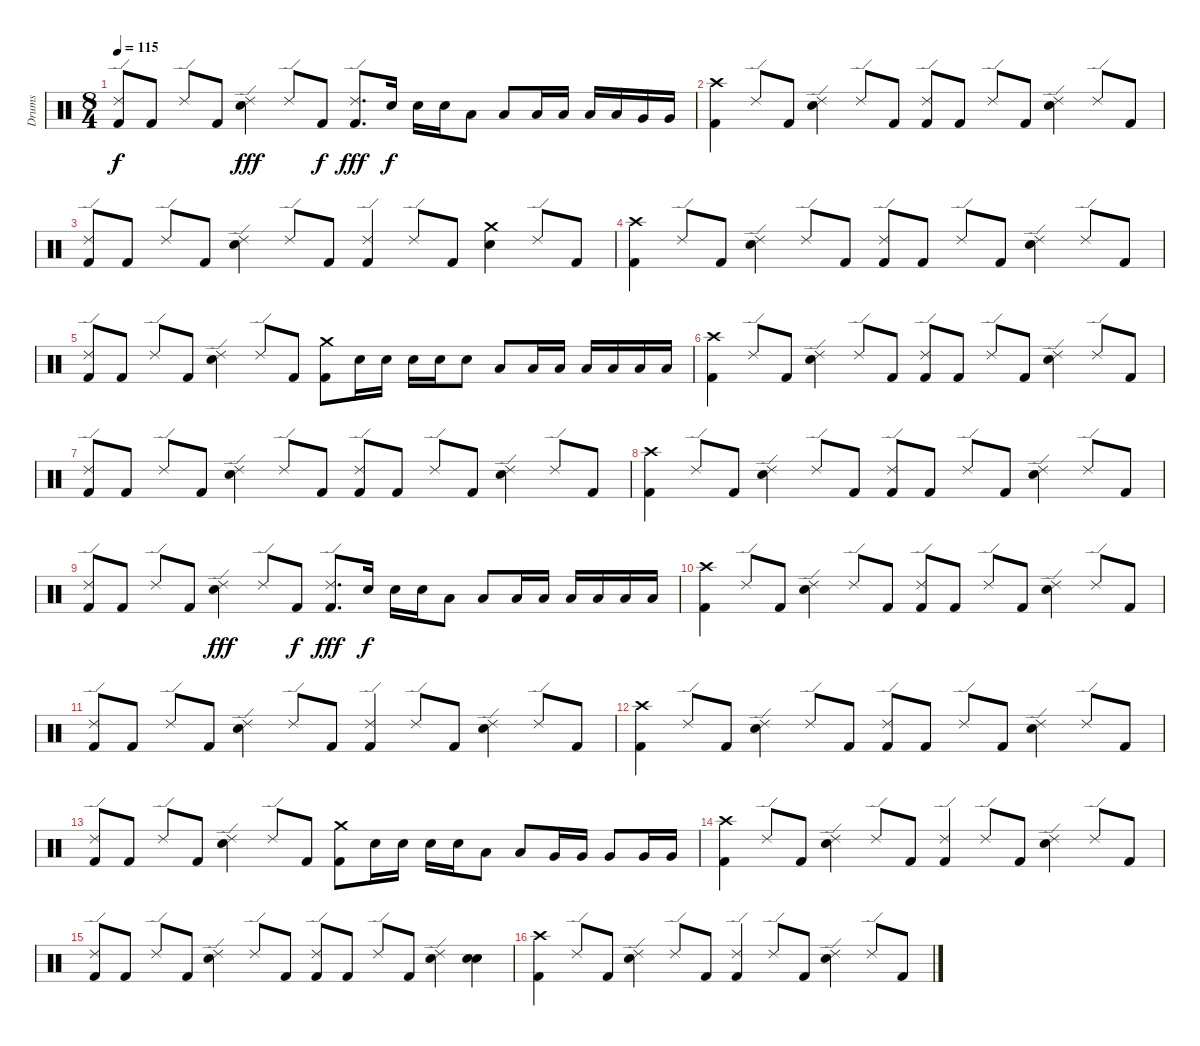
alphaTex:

\track ("Drums" "Drums") {instrument percussion}
\staff {score}
\articulation defaults
\ts (8 4)
\tempo 115
\clef neutral
\ks c
("Ride (edge) 2" "Kick (hit) 2").8{dy f} "Kick (hit) 2".8 "Ride (edge) 2".8 "Kick (hit) 2".8 ("Ride (edge) 2" "Electric Snare (hit)").4{dy fff} "Ride (edge) 2".8 "Kick (hit) 2".8{dy f} ("Ride (edge) 2" "Kick (hit) 2").8{d dy fff} "Electric Snare (hit)".16{dy f} "Electric Snare (hit)".16 "Electric Snare (hit)".16 "Low Tom (hit)".8 "Low Tom (hit)".8 "Low Tom (hit)".16 "Low Tom (hit)".16 "Low Tom (hit)".16 "Low Tom (hit)".16 "Very Low Tom (hit)".16 "Very Low Tom (hit)".16 |
("Crash high (hit)" "Kick (hit) 2").4 "Ride (edge) 2".8 "Kick (hit) 2".8 ("Ride (edge) 2" "Electric Snare (hit)").4 "Ride (edge) 2".8 "Kick (hit) 2".8 ("Ride (edge) 2" "Kick (hit) 2").8 "Kick (hit) 2".8 "Ride (edge) 2".8 "Kick (hit) 2".8 ("Ride (edge) 2" "Electric Snare (hit)").4 "Ride (edge) 2".8 "Kick (hit) 2".8 |
("Ride (edge) 2" "Kick (hit) 2").8 "Kick (hit) 2".8 "Ride (edge) 2".8 "Kick (hit) 2".8 ("Ride (edge) 2" "Electric Snare (hit)").4 "Ride (edge) 2".8 "Kick (hit) 2".8 ("Ride (edge) 2" "Kick (hit) 2").4 "Ride (edge) 2".8 "Kick (hit) 2".8 ("Crash medium (hit)" "Electric Snare (hit)").4 "Ride (edge) 2".8 "Kick (hit) 2".8 |
("Crash high (hit)" "Kick (hit) 2").4 "Ride (edge) 2".8 "Kick (hit) 2".8 ("Ride (edge) 2" "Electric Snare (hit)").4 "Ride (edge) 2".8 "Kick (hit) 2".8 ("Ride (edge) 2" "Kick (hit) 2").8 "Kick (hit) 2".8 "Ride (edge) 2".8 "Kick (hit) 2".8 ("Ride (edge) 2" "Electric Snare (hit)").4 "Ride (edge) 2".8 "Kick (hit) 2".8 |
("Ride (edge) 2" "Kick (hit) 2").8 "Kick (hit) 2".8 "Ride (edge) 2".8 "Kick (hit) 2".8 ("Ride (edge) 2" "Electric Snare (hit)").4 "Ride (edge) 2".8 "Kick (hit) 2".8 ("Crash medium (hit)" "Kick (hit) 2").8 "Electric Snare (hit)".16 "Electric Snare (hit)".16 "Electric Snare (hit)".16 "Electric Snare (hit)".16 "Electric Snare (hit)".8 "Low Tom (hit)".8 "Low Tom (hit)".16 "Low Tom (hit)".16 "Low Tom (hit)".16 "Low Tom (hit)".16 "Low Tom (hit)".16 "Low Tom (hit)".16 |
("Crash high (hit)" "Kick (hit) 2").4 "Ride (edge) 2".8 "Kick (hit) 2".8 ("Ride (edge) 2" "Electric Snare (hit)").4 "Ride (edge) 2".8 "Kick (hit) 2".8 ("Ride (edge) 2" "Kick (hit) 2").8 "Kick (hit) 2".8 "Ride (edge) 2".8 "Kick (hit) 2".8 ("Ride (edge) 2" "Electric Snare (hit)").4 "Ride (edge) 2".8 "Kick (hit) 2".8 |
("Ride (edge) 2" "Kick (hit) 2").8 "Kick (hit) 2".8 "Ride (edge) 2".8 "Kick (hit) 2".8 ("Ride (edge) 2" "Electric Snare (hit)").4 "Ride (edge) 2".8 "Kick (hit) 2".8 ("Ride (edge) 2" "Kick (hit) 2").8 "Kick (hit) 2".8 "Ride (edge) 2".8 "Kick (hit) 2".8 ("Ride (edge) 2" "Electric Snare (hit)").4 "Ride (edge) 2".8 "Kick (hit) 2".8 |
("Crash high (hit)" "Kick (hit) 2").4 "Ride (edge) 2".8 "Kick (hit) 2".8 ("Ride (edge) 2" "Electric Snare (hit)").4 "Ride (edge) 2".8 "Kick (hit) 2".8 ("Ride (edge) 2" "Kick (hit) 2").8 "Kick (hit) 2".8 "Ride (edge) 2".8 "Kick (hit) 2".8 ("Ride (edge) 2" "Electric Snare (hit)").4 "Ride (edge) 2".8 "Kick (hit) 2".8 |
("Ride (edge) 2" "Kick (hit) 2").8 "Kick (hit) 2".8 "Ride (edge) 2".8 "Kick (hit) 2".8 ("Ride (edge) 2" "Electric Snare (hit)").4{dy fff} "Ride (edge) 2".8 "Kick (hit) 2".8{dy f} ("Ride (edge) 2" "Kick (hit) 2").8{d dy fff} "Electric Snare (hit)".16{dy f} "Electric Snare (hit)".16 "Electric Snare (hit)".16 "Low Tom (hit)".8 "Low Tom (hit)".8 "Low Tom (hit)".16 "Low Tom (hit)".16 "Low Tom (hit)".16 "Low Tom (hit)".16 "Low Tom (hit)".16 "Low Tom (hit)".16 |
("Crash high (hit)" "Kick (hit) 2").4 "Ride (edge) 2".8 "Kick (hit) 2".8 ("Ride (edge) 2" "Electric Snare (hit)").4 "Ride (edge) 2".8 "Kick (hit) 2".8 ("Ride (edge) 2" "Kick (hit) 2").8 "Kick (hit) 2".8 "Ride (edge) 2".8 "Kick (hit) 2".8 ("Ride (edge) 2" "Electric Snare (hit)").4 "Ride (edge) 2".8 "Kick (hit) 2".8 |
("Ride (edge) 2" "Kick (hit) 2").8 "Kick (hit) 2".8 "Ride (edge) 2".8 "Kick (hit) 2".8 ("Ride (edge) 2" "Electric Snare (hit)").4 "Ride (edge) 2".8 "Kick (hit) 2".8 ("Ride (edge) 2" "Kick (hit) 2").4 "Ride (edge) 2".8 "Kick (hit) 2".8 ("Ride (edge) 2" "Electric Snare (hit)").4 "Ride (edge) 2".8 "Kick (hit) 2".8 |
("Crash high (hit)" "Kick (hit) 2").4 "Ride (edge) 2".8 "Kick (hit) 2".8 ("Ride (edge) 2" "Electric Snare (hit)").4 "Ride (edge) 2".8 "Kick (hit) 2".8 ("Ride (edge) 2" "Kick (hit) 2").8 "Kick (hit) 2".8 "Ride (edge) 2".8 "Kick (hit) 2".8 ("Ride (edge) 2" "Electric Snare (hit)").4 "Ride (edge) 2".8 "Kick (hit) 2".8 |
("Ride (edge) 2" "Kick (hit) 2").8 "Kick (hit) 2".8 "Ride (edge) 2".8 "Kick (hit) 2".8 ("Ride (edge) 2" "Electric Snare (hit)").4 "Ride (edge) 2".8 "Kick (hit) 2".8 ("Crash medium (hit)" "Kick (hit) 2").8 "Electric Snare (hit)".16 "Electric Snare (hit)".16 "Electric Snare (hit)".16 "Electric Snare (hit)".16 "Low Tom (hit)".8 "Low Tom (hit)".8 "Very Low Tom (hit)".16 "Very Low Tom (hit)".16 "Very Low Tom (hit)".8 "Very Low Tom (hit)".16 "Very Low Tom (hit)".16 |
("Crash high (hit)" "Kick (hit) 2").4 "Ride (edge) 2".8 "Kick (hit) 2".8 ("Ride (edge) 2" "Electric Snare (hit)").4 "Ride (edge) 2".8 "Kick (hit) 2".8 ("Ride (edge) 2" "Kick (hit) 2").4 "Ride (edge) 2".8 "Kick (hit) 2".8 ("Ride (edge) 2" "Electric Snare (hit)").4 "Ride (edge) 2".8 "Kick (hit) 2".8 |
("Ride (edge) 2" "Kick (hit) 2").8 "Kick (hit) 2".8 "Ride (edge) 2".8 "Kick (hit) 2".8 ("Ride (edge) 2" "Electric Snare (hit)").4 "Ride (edge) 2".8 "Kick (hit) 2".8 ("Ride (edge) 2" "Kick (hit) 2").8 "Kick (hit) 2".8 "Ride (edge) 2".8 "Kick (hit) 2".8 ("Ride (edge) 2" "Electric Snare (hit)").4 ("Electric Snare (hit)" "Electric Snare (hit)").4{bu 60} |
("Crash high (hit)" "Kick (hit) 2").4 "Ride (edge) 2".8 "Kick (hit) 2".8 ("Ride (edge) 2" "Electric Snare (hit)").4 "Ride (edge) 2".8 "Kick (hit) 2".8 ("Ride (edge) 2" "Kick (hit) 2").4 "Ride (edge) 2".8 "Kick (hit) 2".8 ("Ride (edge) 2" "Electric Snare (hit)").4 "Ride (edge) 2".8 "Kick (hit) 2".8
